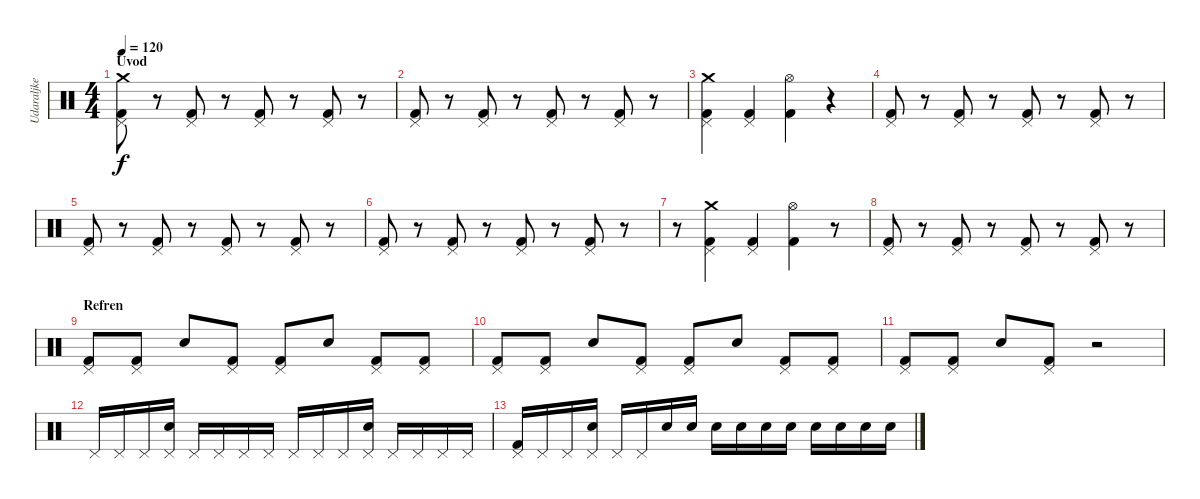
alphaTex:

\track ("Udaraljke" "Udaraljke") {instrument percussion}
\staff {score}
\articulation defaults
\ts (4 4)
\section ("" "Uvod")
\tempo 120
\clef neutral
\ks c
("Pedal Hi-Hat (hit)" "Kick (hit) 2" "Crash medium (hit)").8{dy f} r.8 ("Pedal Hi-Hat (hit)" "Kick (hit) 2").8 r.8 ("Pedal Hi-Hat (hit)" "Kick (hit) 2").8 r.8 ("Pedal Hi-Hat (hit)" "Kick (hit) 2").8 r.8 |
("Pedal Hi-Hat (hit)" "Kick (hit) 2").8 r.8 ("Pedal Hi-Hat (hit)" "Kick (hit) 2").8 r.8 ("Pedal Hi-Hat (hit)" "Kick (hit) 2").8 r.8 ("Pedal Hi-Hat (hit)" "Kick (hit) 2").8 r.8 |
("Pedal Hi-Hat (hit)" "Kick (hit) 2" "Crash medium (hit)").4 ("Pedal Hi-Hat (hit)" "Kick (hit) 2").4 ("Hi-Hat (open)" "Kick (hit) 2").4 r.4 |
("Pedal Hi-Hat (hit)" "Kick (hit) 2").8 r.8 ("Pedal Hi-Hat (hit)" "Kick (hit) 2").8 r.8 ("Pedal Hi-Hat (hit)" "Kick (hit) 2").8 r.8 ("Pedal Hi-Hat (hit)" "Kick (hit) 2").8 r.8 |
("Pedal Hi-Hat (hit)" "Kick (hit) 2").8 r.8 ("Pedal Hi-Hat (hit)" "Kick (hit) 2").8 r.8 ("Pedal Hi-Hat (hit)" "Kick (hit) 2").8 r.8 ("Pedal Hi-Hat (hit)" "Kick (hit) 2").8 r.8 |
("Pedal Hi-Hat (hit)" "Kick (hit) 2").8 r.8 ("Pedal Hi-Hat (hit)" "Kick (hit) 2").8 r.8 ("Pedal Hi-Hat (hit)" "Kick (hit) 2").8 r.8 ("Pedal Hi-Hat (hit)" "Kick (hit) 2").8 r.8 |
r.8 ("Pedal Hi-Hat (hit)" "Kick (hit) 2" "Crash medium (hit)").4 ("Pedal Hi-Hat (hit)" "Kick (hit) 2").4 ("Hi-Hat (open)" "Kick (hit) 2").4 r.8 |
("Pedal Hi-Hat (hit)" "Kick (hit) 2").8 r.8 ("Pedal Hi-Hat (hit)" "Kick (hit) 2").8 r.8 ("Pedal Hi-Hat (hit)" "Kick (hit) 2").8 r.8 ("Pedal Hi-Hat (hit)" "Kick (hit) 2").8 r.8 |
\section ("" "Refren")
("Pedal Hi-Hat (hit)" "Kick (hit) 2").8 ("Pedal Hi-Hat (hit)" "Kick (hit) 2").8 "Snare (hit) 2".8 ("Pedal Hi-Hat (hit)" "Kick (hit) 2").8 ("Pedal Hi-Hat (hit)" "Kick (hit) 2").8 "Snare (hit) 2".8 ("Pedal Hi-Hat (hit)" "Kick (hit) 2").8 ("Pedal Hi-Hat (hit)" "Kick (hit) 2").8 |
("Pedal Hi-Hat (hit)" "Kick (hit) 2").8 ("Pedal Hi-Hat (hit)" "Kick (hit) 2").8 "Snare (hit) 2".8 ("Pedal Hi-Hat (hit)" "Kick (hit) 2").8 ("Pedal Hi-Hat (hit)" "Kick (hit) 2").8 "Snare (hit) 2".8 ("Pedal Hi-Hat (hit)" "Kick (hit) 2").8 ("Pedal Hi-Hat (hit)" "Kick (hit) 2").8 |
("Pedal Hi-Hat (hit)" "Kick (hit) 2").8 ("Pedal Hi-Hat (hit)" "Kick (hit) 2").8 "Snare (hit) 2".8 ("Pedal Hi-Hat (hit)" "Kick (hit) 2").8 r.2 |
"Pedal Hi-Hat (hit)".16 "Pedal Hi-Hat (hit)".16 "Pedal Hi-Hat (hit)".16 ("Pedal Hi-Hat (hit)" "Snare (hit) 2").16 "Pedal Hi-Hat (hit)".16 "Pedal Hi-Hat (hit)".16 "Pedal Hi-Hat (hit)".16 "Pedal Hi-Hat (hit)".16 "Pedal Hi-Hat (hit)".16 "Pedal Hi-Hat (hit)".16 "Pedal Hi-Hat (hit)".16 ("Pedal Hi-Hat (hit)" "Snare (hit) 2").16 "Pedal Hi-Hat (hit)".16 "Pedal Hi-Hat (hit)".16 "Pedal Hi-Hat (hit)".16 "Pedal Hi-Hat (hit)".16 |
("Pedal Hi-Hat (hit)" "Kick (hit) 2").16 "Pedal Hi-Hat (hit)".16 "Pedal Hi-Hat (hit)".16 ("Pedal Hi-Hat (hit)" "Snare (hit) 2").16 "Pedal Hi-Hat (hit)".16 "Pedal Hi-Hat (hit)".16 "Snare (hit) 2".16 "Snare (hit) 2".16 "Snare (hit) 2".16 "Snare (hit) 2".16 "Snare (hit) 2".16 "Snare (hit) 2".16 "Snare (hit) 2".16 "Snare (hit) 2".16 "Snare (hit) 2".16 "Snare (hit) 2".16
